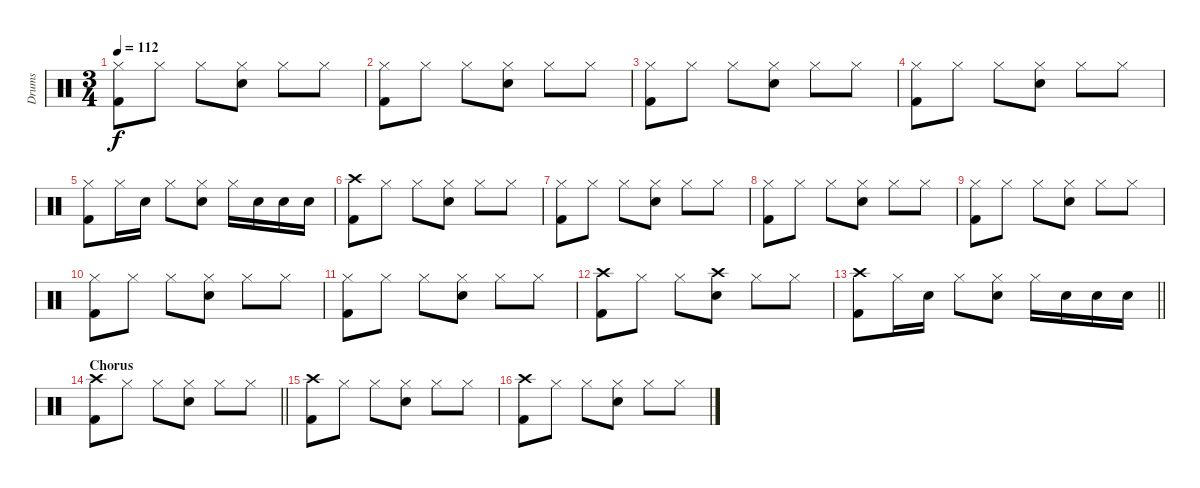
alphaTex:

\track ("Drums" "Drums") {instrument percussion}
\staff {score}
\articulation defaults
\ts (3 4)
\tempo 112
\clef neutral
\ks c
("Hi-Hat (closed)" "Kick (hit) 2").8{dy f} "Hi-Hat (closed)".8 "Hi-Hat (closed)".8 ("Hi-Hat (closed)" "Snare (hit) 2").8 "Hi-Hat (closed)".8 "Hi-Hat (closed)".8 |
("Hi-Hat (closed)" "Kick (hit) 2").8 "Hi-Hat (closed)".8 "Hi-Hat (closed)".8 ("Hi-Hat (closed)" "Snare (hit) 2").8 "Hi-Hat (closed)".8 "Hi-Hat (closed)".8 |
("Hi-Hat (closed)" "Kick (hit) 2").8 "Hi-Hat (closed)".8 "Hi-Hat (closed)".8 ("Hi-Hat (closed)" "Snare (hit) 2").8 "Hi-Hat (closed)".8 "Hi-Hat (closed)".8 |
("Hi-Hat (closed)" "Kick (hit) 2").8 "Hi-Hat (closed)".8 "Hi-Hat (closed)".8 ("Hi-Hat (closed)" "Snare (hit) 2").8 "Hi-Hat (closed)".8 "Hi-Hat (closed)".8 |
("Hi-Hat (closed)" "Kick (hit) 2").8 "Hi-Hat (closed)".16 "Snare (hit) 2".16 "Hi-Hat (closed)".8 ("Hi-Hat (closed)" "Snare (hit) 2").8 "Hi-Hat (closed)".16 "Snare (hit) 2".16 "Snare (hit) 2".16 "Snare (hit) 2".16 |
("Crash high (hit)" "Kick (hit) 2").8 "Hi-Hat (closed)".8 "Hi-Hat (closed)".8 ("Hi-Hat (closed)" "Snare (hit) 2").8 "Hi-Hat (closed)".8 "Hi-Hat (closed)".8 |
("Hi-Hat (closed)" "Kick (hit) 2").8 "Hi-Hat (closed)".8 "Hi-Hat (closed)".8 ("Hi-Hat (closed)" "Snare (hit) 2").8 "Hi-Hat (closed)".8 "Hi-Hat (closed)".8 |
("Hi-Hat (closed)" "Kick (hit) 2").8 "Hi-Hat (closed)".8 "Hi-Hat (closed)".8 ("Hi-Hat (closed)" "Snare (hit) 2").8 "Hi-Hat (closed)".8 "Hi-Hat (closed)".8 |
("Hi-Hat (closed)" "Kick (hit) 2").8 "Hi-Hat (closed)".8 "Hi-Hat (closed)".8 ("Hi-Hat (closed)" "Snare (hit) 2").8 "Hi-Hat (closed)".8 "Hi-Hat (closed)".8 |
("Hi-Hat (closed)" "Kick (hit) 2").8 "Hi-Hat (closed)".8 "Hi-Hat (closed)".8 ("Hi-Hat (closed)" "Snare (hit) 2").8 "Hi-Hat (closed)".8 "Hi-Hat (closed)".8 |
("Hi-Hat (closed)" "Kick (hit) 2").8 "Hi-Hat (closed)".8 "Hi-Hat (closed)".8 ("Hi-Hat (closed)" "Snare (hit) 2").8 "Hi-Hat (closed)".8 "Hi-Hat (closed)".8 |
("Crash high (hit)" "Kick (hit) 2").8 "Hi-Hat (closed)".8 "Hi-Hat (closed)".8 ("Crash high (hit)" "Snare (hit) 2").8 "Hi-Hat (closed)".8 "Hi-Hat (closed)".8 |
\barLineRight lightlight
("Crash high (hit)" "Kick (hit) 2").8 "Hi-Hat (closed)".16 "Snare (hit) 2".16 "Hi-Hat (closed)".8 ("Hi-Hat (closed)" "Snare (hit) 2").8 "Hi-Hat (closed)".16 "Snare (hit) 2".16 "Snare (hit) 2".16 "Snare (hit) 2".16 |
\section ("" "Chorus")
\barLineRight lightlight
("Crash high (hit)" "Kick (hit) 2").8 "Hi-Hat (closed)".8 "Hi-Hat (closed)".8 ("Hi-Hat (closed)" "Snare (hit) 2").8 "Hi-Hat (closed)".8 "Hi-Hat (closed)".8 |
\section ("" "")
("Crash high (hit)" "Kick (hit) 2").8 "Hi-Hat (closed)".8 "Hi-Hat (closed)".8 ("Hi-Hat (closed)" "Snare (hit) 2").8 "Hi-Hat (closed)".8 "Hi-Hat (closed)".8 |
("Crash high (hit)" "Kick (hit) 2").8 "Hi-Hat (closed)".8 "Hi-Hat (closed)".8 ("Hi-Hat (closed)" "Snare (hit) 2").8 "Hi-Hat (closed)".8 "Hi-Hat (closed)".8
